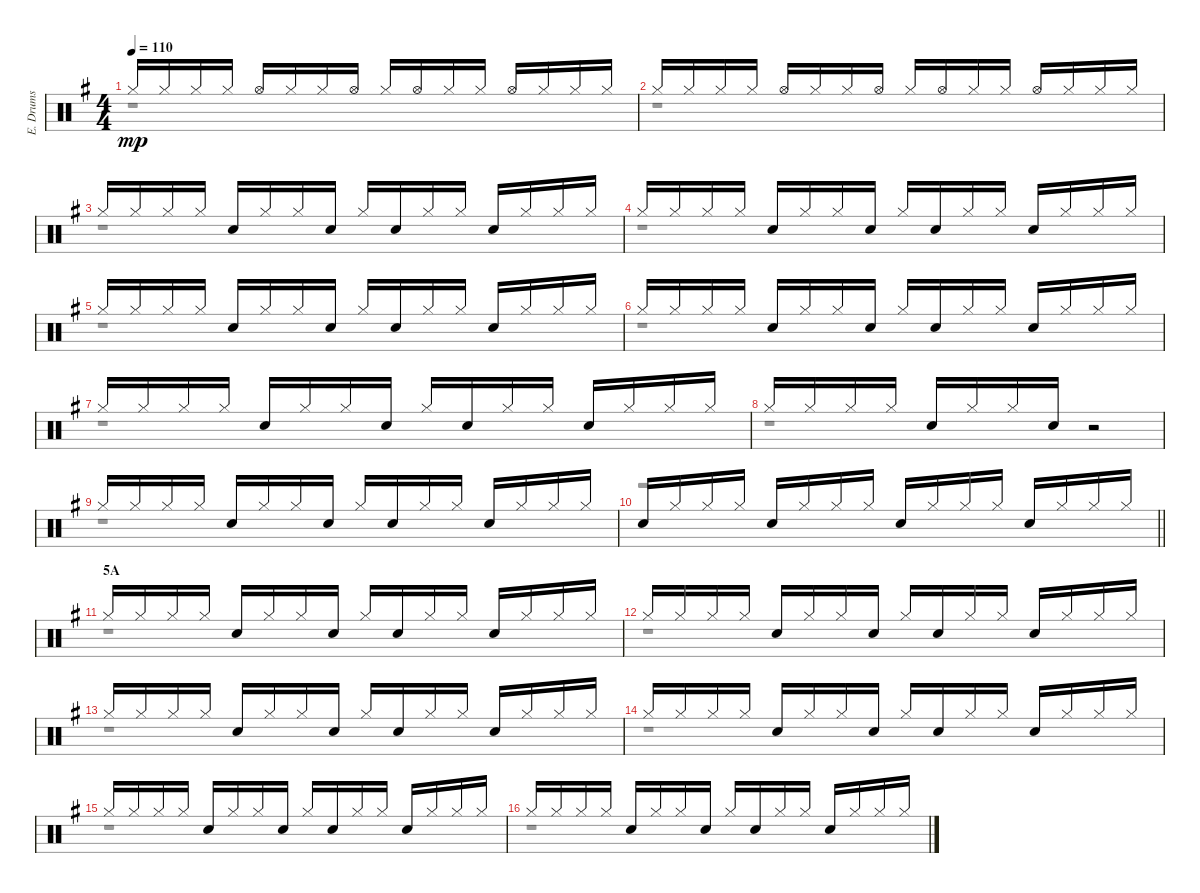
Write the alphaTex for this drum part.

\track ("E. Drums" "E. Drums") {instrument percussion}
\staff {score}
\articulation defaults
\voice
\ts (4 4)
\tempo 110
\clef neutral
\ks g "Hi-Hat (closed)".16{dy mp} "Hi-Hat (closed)".16 "Hi-Hat (closed)".16 "Hi-Hat (closed)".16 "Hi-Hat (open)".16 "Hi-Hat (closed)".16 "Hi-Hat (closed)".16 "Hi-Hat (open)".16 "Hi-Hat (closed)".16 "Hi-Hat (open)".16 "Hi-Hat (closed)".16 "Hi-Hat (closed)".16 "Hi-Hat (open)".16 "Hi-Hat (closed)".16 "Hi-Hat (closed)".16 "Hi-Hat (closed)".16
|
"Hi-Hat (closed)".16 "Hi-Hat (closed)".16 "Hi-Hat (closed)".16 "Hi-Hat (closed)".16 "Hi-Hat (open)".16 "Hi-Hat (closed)".16 "Hi-Hat (closed)".16 "Hi-Hat (open)".16 "Hi-Hat (closed)".16 "Hi-Hat (open)".16 "Hi-Hat (closed)".16 "Hi-Hat (closed)".16 "Hi-Hat (open)".16 "Hi-Hat (closed)".16 "Hi-Hat (closed)".16 "Hi-Hat (closed)".16 |
"Hi-Hat (closed)".16 "Hi-Hat (closed)".16 "Hi-Hat (closed)".16 "Hi-Hat (closed)".16 "Electric Snare (hit)".16 "Hi-Hat (closed)".16 "Hi-Hat (closed)".16 "Electric Snare (hit)".16 "Hi-Hat (closed)".16 "Electric Snare (hit)".16 "Hi-Hat (closed)".16 "Hi-Hat (closed)".16 "Electric Snare (hit)".16 "Hi-Hat (closed)".16 "Hi-Hat (closed)".16 "Hi-Hat (closed)".16 |
"Hi-Hat (closed)".16 "Hi-Hat (closed)".16 "Hi-Hat (closed)".16 "Hi-Hat (closed)".16 "Electric Snare (hit)".16 "Hi-Hat (closed)".16 "Hi-Hat (closed)".16 "Electric Snare (hit)".16 "Hi-Hat (closed)".16 "Electric Snare (hit)".16 "Hi-Hat (closed)".16 "Hi-Hat (closed)".16 "Electric Snare (hit)".16 "Hi-Hat (closed)".16 "Hi-Hat (closed)".16 "Hi-Hat (closed)".16 |
"Hi-Hat (closed)".16 "Hi-Hat (closed)".16 "Hi-Hat (closed)".16 "Hi-Hat (closed)".16 "Electric Snare (hit)".16 "Hi-Hat (closed)".16 "Hi-Hat (closed)".16 "Electric Snare (hit)".16 "Hi-Hat (closed)".16 "Electric Snare (hit)".16 "Hi-Hat (closed)".16 "Hi-Hat (closed)".16 "Electric Snare (hit)".16 "Hi-Hat (closed)".16 "Hi-Hat (closed)".16 "Hi-Hat (closed)".16 |
"Hi-Hat (closed)".16 "Hi-Hat (closed)".16 "Hi-Hat (closed)".16 "Hi-Hat (closed)".16 "Electric Snare (hit)".16 "Hi-Hat (closed)".16 "Hi-Hat (closed)".16 "Electric Snare (hit)".16 "Hi-Hat (closed)".16 "Electric Snare (hit)".16 "Hi-Hat (closed)".16 "Hi-Hat (closed)".16 "Electric Snare (hit)".16 "Hi-Hat (closed)".16 "Hi-Hat (closed)".16 "Hi-Hat (closed)".16 |
"Hi-Hat (closed)".16 "Hi-Hat (closed)".16 "Hi-Hat (closed)".16 "Hi-Hat (closed)".16 "Electric Snare (hit)".16 "Hi-Hat (closed)".16 "Hi-Hat (closed)".16 "Electric Snare (hit)".16 "Hi-Hat (closed)".16 "Electric Snare (hit)".16 "Hi-Hat (closed)".16 "Hi-Hat (closed)".16 "Electric Snare (hit)".16 "Hi-Hat (closed)".16 "Hi-Hat (closed)".16 "Hi-Hat (closed)".16 |
"Hi-Hat (closed)".16 "Hi-Hat (closed)".16 "Hi-Hat (closed)".16 "Hi-Hat (closed)".16 "Electric Snare (hit)".16 "Hi-Hat (closed)".16 "Hi-Hat (closed)".16 "Electric Snare (hit)".16 r.2 |
"Hi-Hat (closed)".16 "Hi-Hat (closed)".16 "Hi-Hat (closed)".16 "Hi-Hat (closed)".16 "Electric Snare (hit)".16 "Hi-Hat (closed)".16 "Hi-Hat (closed)".16 "Electric Snare (hit)".16 "Hi-Hat (closed)".16 "Electric Snare (hit)".16 "Hi-Hat (closed)".16 "Hi-Hat (closed)".16 "Electric Snare (hit)".16 "Hi-Hat (closed)".16 "Hi-Hat (closed)".16 "Hi-Hat (closed)".16 |
\barLineRight lightlight "Electric Snare (hit)".16 "Hi-Hat (closed)".16 "Hi-Hat (closed)".16 "Hi-Hat (closed)".16 "Electric Snare (hit)".16 "Hi-Hat (closed)".16 "Hi-Hat (closed)".16 "Hi-Hat (closed)".16 "Electric Snare (hit)".16 "Hi-Hat (closed)".16 "Hi-Hat (closed)".16 "Hi-Hat (closed)".16 "Electric Snare (hit)".16 "Hi-Hat (closed)".16 "Hi-Hat (closed)".16 "Hi-Hat (closed)".16
|
\section ("" "5A")
"Hi-Hat (closed)".16 "Hi-Hat (closed)".16 "Hi-Hat (closed)".16 "Hi-Hat (closed)".16 "Electric Snare (hit)".16 "Hi-Hat (closed)".16 "Hi-Hat (closed)".16 "Electric Snare (hit)".16 "Hi-Hat (closed)".16 "Electric Snare (hit)".16 "Hi-Hat (closed)".16 "Hi-Hat (closed)".16 "Electric Snare (hit)".16 "Hi-Hat (closed)".16 "Hi-Hat (closed)".16 "Hi-Hat (closed)".16 |
"Hi-Hat (closed)".16 "Hi-Hat (closed)".16 "Hi-Hat (closed)".16 "Hi-Hat (closed)".16 "Electric Snare (hit)".16 "Hi-Hat (closed)".16 "Hi-Hat (closed)".16 "Electric Snare (hit)".16 "Hi-Hat (closed)".16 "Electric Snare (hit)".16 "Hi-Hat (closed)".16 "Hi-Hat (closed)".16 "Electric Snare (hit)".16 "Hi-Hat (closed)".16 "Hi-Hat (closed)".16 "Hi-Hat (closed)".16 |
"Hi-Hat (closed)".16 "Hi-Hat (closed)".16 "Hi-Hat (closed)".16 "Hi-Hat (closed)".16 "Electric Snare (hit)".16 "Hi-Hat (closed)".16 "Hi-Hat (closed)".16 "Electric Snare (hit)".16 "Hi-Hat (closed)".16 "Electric Snare (hit)".16 "Hi-Hat (closed)".16 "Hi-Hat (closed)".16 "Electric Snare (hit)".16 "Hi-Hat (closed)".16 "Hi-Hat (closed)".16 "Hi-Hat (closed)".16 |
"Hi-Hat (closed)".16 "Hi-Hat (closed)".16 "Hi-Hat (closed)".16 "Hi-Hat (closed)".16 "Electric Snare (hit)".16 "Hi-Hat (closed)".16 "Hi-Hat (closed)".16 "Electric Snare (hit)".16 "Hi-Hat (closed)".16 "Electric Snare (hit)".16 "Hi-Hat (closed)".16 "Hi-Hat (closed)".16 "Electric Snare (hit)".16 "Hi-Hat (closed)".16 "Hi-Hat (closed)".16 "Hi-Hat (closed)".16 |
"Hi-Hat (closed)".16 "Hi-Hat (closed)".16 "Hi-Hat (closed)".16 "Hi-Hat (closed)".16 "Electric Snare (hit)".16 "Hi-Hat (closed)".16 "Hi-Hat (closed)".16 "Electric Snare (hit)".16 "Hi-Hat (closed)".16 "Electric Snare (hit)".16 "Hi-Hat (closed)".16 "Hi-Hat (closed)".16 "Electric Snare (hit)".16 "Hi-Hat (closed)".16 "Hi-Hat (closed)".16 "Hi-Hat (closed)".16 |
"Hi-Hat (closed)".16 "Hi-Hat (closed)".16 "Hi-Hat (closed)".16 "Hi-Hat (closed)".16 "Electric Snare (hit)".16 "Hi-Hat (closed)".16 "Hi-Hat (closed)".16 "Electric Snare (hit)".16 "Hi-Hat (closed)".16 "Electric Snare (hit)".16 "Hi-Hat (closed)".16 "Hi-Hat (closed)".16 "Electric Snare (hit)".16 "Hi-Hat (closed)".16 "Hi-Hat (closed)".16 "Hi-Hat (closed)".16
\voice
\clef neutral
\ottava regular
\simile none
\ks g
r.1{dy mp} |
r.1 |
r.1 |
r.1 |
r.1 |
r.1 |
r.1 |
r.1 |
r.1 |
\barLineRight lightlight
r.1 |
r.1 |
r.1 |
r.1 |
r.1 |
r.1 |
r.1
